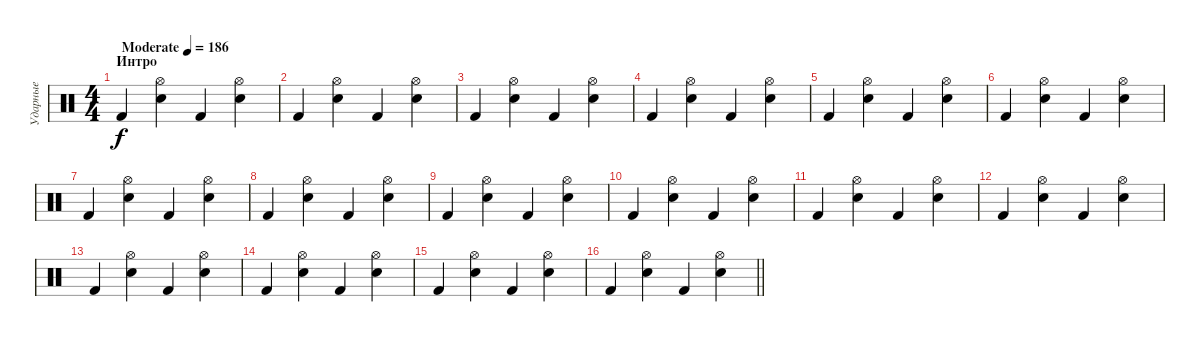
\track ("Ударные" "Ударные") {instrument percussion}
\staff {score}
\articulation defaults
\ts (4 4)
\section ("" "Интро")
\tempo (186 "Moderate")
\clef neutral
\ks c "Kick (hit) 2".4{dy f}
("Hi-Hat (open)" "Snare (hit) 2").4 "Kick (hit) 2".4 ("Hi-Hat (open)" "Snare (hit) 2").4 |
"Kick (hit) 2".4 ("Hi-Hat (open)" "Snare (hit) 2").4 "Kick (hit) 2".4 ("Hi-Hat (open)" "Snare (hit) 2").4 |
"Kick (hit) 2".4 ("Hi-Hat (open)" "Snare (hit) 2").4 "Kick (hit) 2".4 ("Hi-Hat (open)" "Snare (hit) 2").4 |
"Kick (hit) 2".4 ("Hi-Hat (open)" "Snare (hit) 2").4 "Kick (hit) 2".4 ("Hi-Hat (open)" "Snare (hit) 2").4 |
"Kick (hit) 2".4 ("Hi-Hat (open)" "Snare (hit) 2").4 "Kick (hit) 2".4 ("Hi-Hat (open)" "Snare (hit) 2").4 |
"Kick (hit) 2".4 ("Hi-Hat (open)" "Snare (hit) 2").4 "Kick (hit) 2".4 ("Hi-Hat (open)" "Snare (hit) 2").4 |
"Kick (hit) 2".4 ("Hi-Hat (open)" "Snare (hit) 2").4 "Kick (hit) 2".4 ("Hi-Hat (open)" "Snare (hit) 2").4 |
"Kick (hit) 2".4 ("Hi-Hat (open)" "Snare (hit) 2").4 "Kick (hit) 2".4 ("Hi-Hat (open)" "Snare (hit) 2").4 |
"Kick (hit) 2".4 ("Hi-Hat (open)" "Snare (hit) 2").4 "Kick (hit) 2".4 ("Hi-Hat (open)" "Snare (hit) 2").4 |
"Kick (hit) 2".4 ("Hi-Hat (open)" "Snare (hit) 2").4 "Kick (hit) 2".4 ("Hi-Hat (open)" "Snare (hit) 2").4 |
"Kick (hit) 2".4 ("Hi-Hat (open)" "Snare (hit) 2").4 "Kick (hit) 2".4 ("Hi-Hat (open)" "Snare (hit) 2").4 |
"Kick (hit) 2".4 ("Hi-Hat (open)" "Snare (hit) 2").4 "Kick (hit) 2".4 ("Hi-Hat (open)" "Snare (hit) 2").4 |
"Kick (hit) 2".4 ("Hi-Hat (open)" "Snare (hit) 2").4 "Kick (hit) 2".4 ("Hi-Hat (open)" "Snare (hit) 2").4 |
"Kick (hit) 2".4 ("Hi-Hat (open)" "Snare (hit) 2").4 "Kick (hit) 2".4 ("Hi-Hat (open)" "Snare (hit) 2").4 |
"Kick (hit) 2".4 ("Hi-Hat (open)" "Snare (hit) 2").4 "Kick (hit) 2".4 ("Hi-Hat (open)" "Snare (hit) 2").4 |
\barLineRight lightlight "Kick (hit) 2".4
("Hi-Hat (open)" "Snare (hit) 2").4 "Kick (hit) 2".4 ("Hi-Hat (open)" "Snare (hit) 2").4
